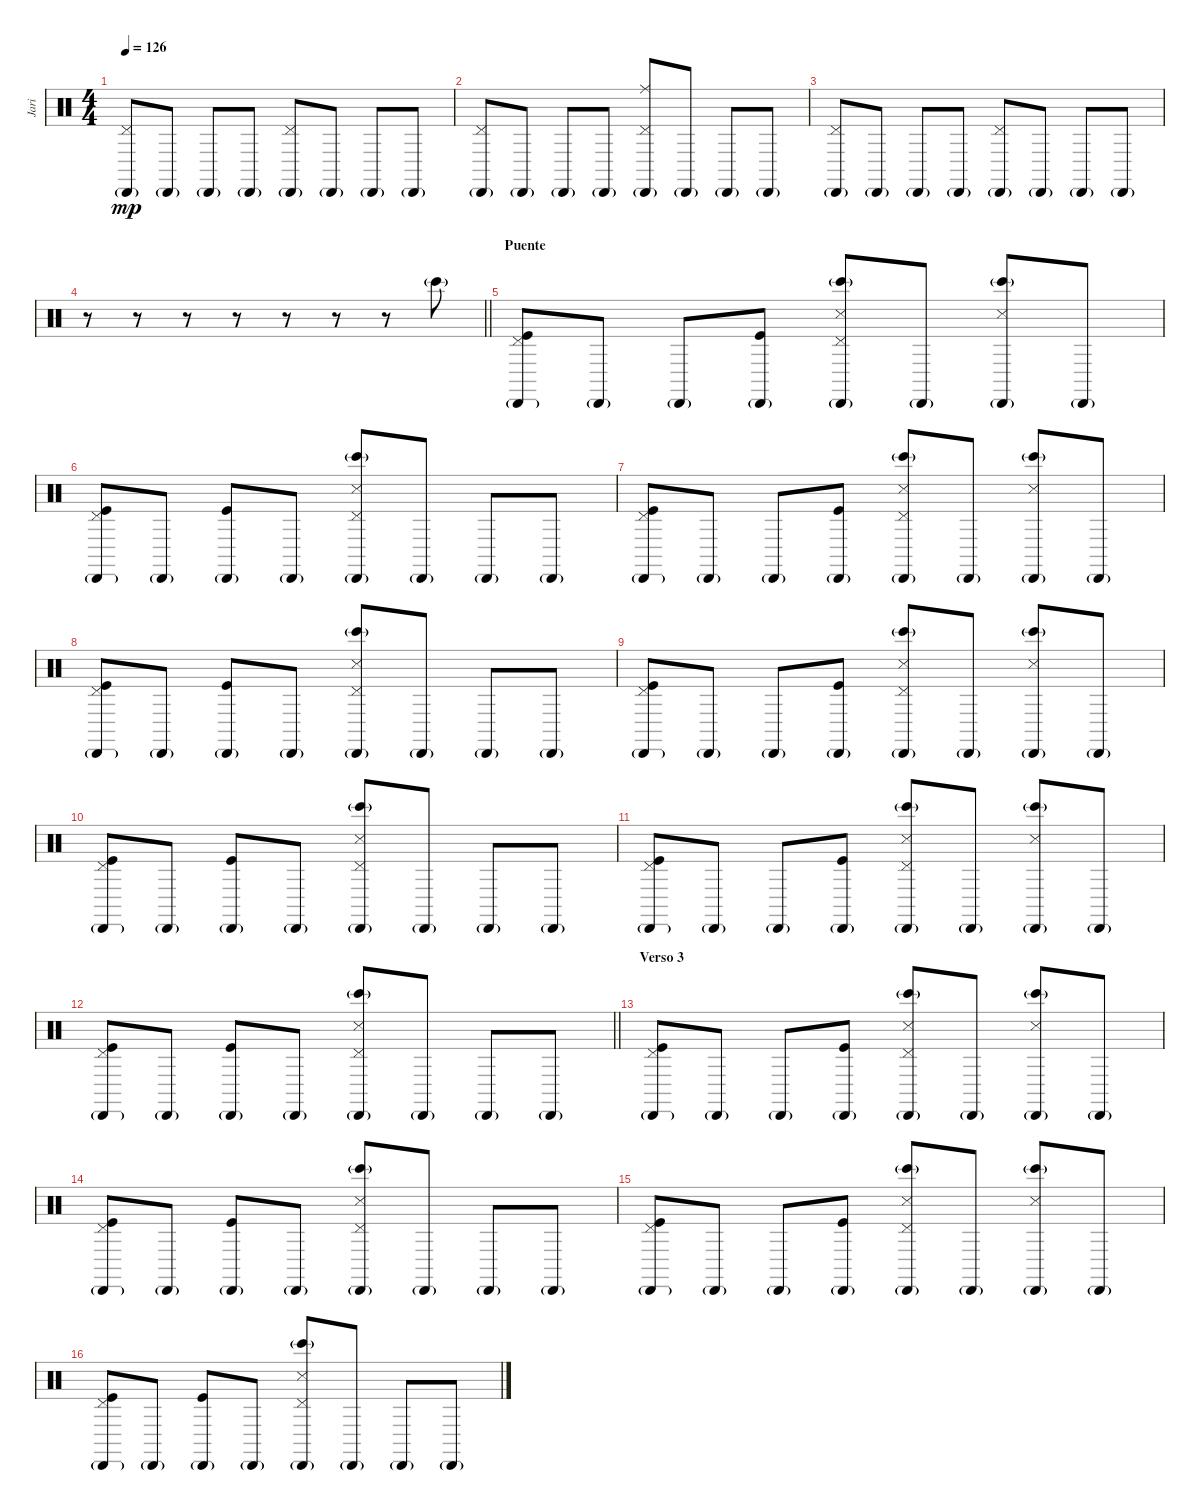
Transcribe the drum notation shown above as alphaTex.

\track ("Jari" "Jari") {instrument percussion}
\staff {score}
\articulation defaults
\ts (4 4)
\tempo 126
\clef neutral
\ks c
("Pedal Hi-Hat (hit)" "Cabasa (hit)"{g}).8{dy mp} "Cabasa (hit)"{g}.8 "Cabasa (hit)"{g}.8 "Cabasa (hit)"{g}.8 ("Pedal Hi-Hat (hit)" "Cabasa (hit)"{g}).8 "Cabasa (hit)"{g}.8 "Cabasa (hit)"{g}.8 "Cabasa (hit)"{g}.8 |
("Pedal Hi-Hat (hit)" "Cabasa (hit)"{g}).8 "Cabasa (hit)"{g}.8 "Cabasa (hit)"{g}.8 "Cabasa (hit)"{g}.8 ("Pedal Hi-Hat (hit)" "Cabasa (hit)"{g} "Ride (middle)").8 "Cabasa (hit)"{g}.8 "Cabasa (hit)"{g}.8 "Cabasa (hit)"{g}.8 |
("Pedal Hi-Hat (hit)" "Cabasa (hit)"{g}).8 "Cabasa (hit)"{g}.8 "Cabasa (hit)"{g}.8 "Cabasa (hit)"{g}.8 ("Pedal Hi-Hat (hit)" "Cabasa (hit)"{g}).8 "Cabasa (hit)"{g}.8 "Cabasa (hit)"{g}.8 "Cabasa (hit)"{g}.8 |
\barLineRight lightlight
r.8 r.8 r.8 r.8 r.8 r.8 r.8 "Bongo High (hit)"{g}.8 |
\section ("" "Puente")
("Pedal Hi-Hat (hit)" "Cabasa (hit)"{g} "Kick (hit)").8 "Cabasa (hit)"{g}.8 "Cabasa (hit)"{g}.8 ("Cabasa (hit)"{g} "Kick (hit)").8 ("Pedal Hi-Hat (hit)" "Cabasa (hit)"{g} "Bongo High (hit)"{g} "Metronome (hit)").8 "Cabasa (hit)"{g}.8 ("Cabasa (hit)"{g} "Bongo High (hit)"{g} "Metronome (hit)").8 "Cabasa (hit)"{g}.8 |
("Pedal Hi-Hat (hit)" "Cabasa (hit)"{g} "Kick (hit)").8 "Cabasa (hit)"{g}.8 ("Cabasa (hit)"{g} "Kick (hit)").8 "Cabasa (hit)"{g}.8 ("Pedal Hi-Hat (hit)" "Cabasa (hit)"{g} "Metronome (hit)" "Bongo High (hit)"{g}).8 "Cabasa (hit)"{g}.8 "Cabasa (hit)"{g}.8 "Cabasa (hit)"{g}.8 |
("Pedal Hi-Hat (hit)" "Cabasa (hit)"{g} "Kick (hit)").8 "Cabasa (hit)"{g}.8 "Cabasa (hit)"{g}.8 ("Cabasa (hit)"{g} "Kick (hit)").8 ("Pedal Hi-Hat (hit)" "Cabasa (hit)"{g} "Bongo High (hit)"{g} "Metronome (hit)").8 "Cabasa (hit)"{g}.8 ("Cabasa (hit)"{g} "Bongo High (hit)"{g} "Metronome (hit)").8 "Cabasa (hit)"{g}.8 |
("Pedal Hi-Hat (hit)" "Cabasa (hit)"{g} "Kick (hit)").8 "Cabasa (hit)"{g}.8 ("Cabasa (hit)"{g} "Kick (hit)").8 "Cabasa (hit)"{g}.8 ("Pedal Hi-Hat (hit)" "Cabasa (hit)"{g} "Metronome (hit)" "Bongo High (hit)"{g}).8 "Cabasa (hit)"{g}.8 "Cabasa (hit)"{g}.8 "Cabasa (hit)"{g}.8 |
("Pedal Hi-Hat (hit)" "Cabasa (hit)"{g} "Kick (hit)").8 "Cabasa (hit)"{g}.8 "Cabasa (hit)"{g}.8 ("Cabasa (hit)"{g} "Kick (hit)").8 ("Pedal Hi-Hat (hit)" "Cabasa (hit)"{g} "Bongo High (hit)"{g} "Metronome (hit)").8 "Cabasa (hit)"{g}.8 ("Cabasa (hit)"{g} "Bongo High (hit)"{g} "Metronome (hit)").8 "Cabasa (hit)"{g}.8 |
("Pedal Hi-Hat (hit)" "Cabasa (hit)"{g} "Kick (hit)").8 "Cabasa (hit)"{g}.8 ("Cabasa (hit)"{g} "Kick (hit)").8 "Cabasa (hit)"{g}.8 ("Pedal Hi-Hat (hit)" "Cabasa (hit)"{g} "Metronome (hit)" "Bongo High (hit)"{g}).8 "Cabasa (hit)"{g}.8 "Cabasa (hit)"{g}.8 "Cabasa (hit)"{g}.8 |
("Pedal Hi-Hat (hit)" "Cabasa (hit)"{g} "Kick (hit)").8 "Cabasa (hit)"{g}.8 "Cabasa (hit)"{g}.8 ("Cabasa (hit)"{g} "Kick (hit)").8 ("Pedal Hi-Hat (hit)" "Cabasa (hit)"{g} "Bongo High (hit)"{g} "Metronome (hit)").8 "Cabasa (hit)"{g}.8 ("Cabasa (hit)"{g} "Bongo High (hit)"{g} "Metronome (hit)").8 "Cabasa (hit)"{g}.8 |
\barLineRight lightlight
("Pedal Hi-Hat (hit)" "Cabasa (hit)"{g} "Kick (hit)").8 "Cabasa (hit)"{g}.8 ("Cabasa (hit)"{g} "Kick (hit)").8 "Cabasa (hit)"{g}.8 ("Pedal Hi-Hat (hit)" "Cabasa (hit)"{g} "Metronome (hit)" "Bongo High (hit)"{g}).8 "Cabasa (hit)"{g}.8 "Cabasa (hit)"{g}.8 "Cabasa (hit)"{g}.8 |
\section ("" "Verso 3")
("Pedal Hi-Hat (hit)" "Cabasa (hit)"{g} "Kick (hit)").8 "Cabasa (hit)"{g}.8 "Cabasa (hit)"{g}.8 ("Cabasa (hit)"{g} "Kick (hit)").8 ("Pedal Hi-Hat (hit)" "Cabasa (hit)"{g} "Bongo High (hit)"{g} "Metronome (hit)").8 "Cabasa (hit)"{g}.8 ("Cabasa (hit)"{g} "Bongo High (hit)"{g} "Metronome (hit)").8 "Cabasa (hit)"{g}.8 |
("Pedal Hi-Hat (hit)" "Cabasa (hit)"{g} "Kick (hit)").8 "Cabasa (hit)"{g}.8 ("Cabasa (hit)"{g} "Kick (hit)").8 "Cabasa (hit)"{g}.8 ("Pedal Hi-Hat (hit)" "Cabasa (hit)"{g} "Metronome (hit)" "Bongo High (hit)"{g}).8 "Cabasa (hit)"{g}.8 "Cabasa (hit)"{g}.8 "Cabasa (hit)"{g}.8 |
("Pedal Hi-Hat (hit)" "Cabasa (hit)"{g} "Kick (hit)").8 "Cabasa (hit)"{g}.8 "Cabasa (hit)"{g}.8 ("Cabasa (hit)"{g} "Kick (hit)").8 ("Pedal Hi-Hat (hit)" "Cabasa (hit)"{g} "Bongo High (hit)"{g} "Metronome (hit)").8 "Cabasa (hit)"{g}.8 ("Cabasa (hit)"{g} "Bongo High (hit)"{g} "Metronome (hit)").8 "Cabasa (hit)"{g}.8 |
("Pedal Hi-Hat (hit)" "Cabasa (hit)"{g} "Kick (hit)").8 "Cabasa (hit)"{g}.8 ("Cabasa (hit)"{g} "Kick (hit)").8 "Cabasa (hit)"{g}.8 ("Pedal Hi-Hat (hit)" "Cabasa (hit)"{g} "Metronome (hit)" "Bongo High (hit)"{g}).8 "Cabasa (hit)"{g}.8 "Cabasa (hit)"{g}.8 "Cabasa (hit)"{g}.8
